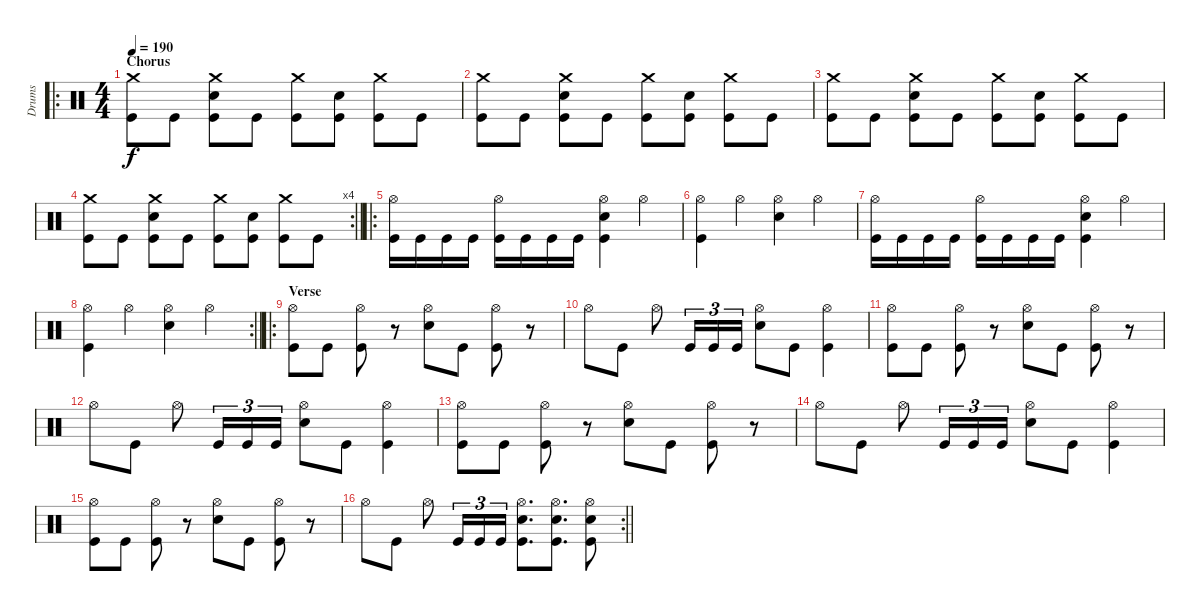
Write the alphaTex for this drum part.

\track ("Drums" "Drums") {instrument percussion}
\staff {score}
\articulation defaults
\ro
\ts (4 4)
\section ("" "Chorus")
\tempo 190
\clef neutral
\ks c
("Crash medium (hit)" "Kick (hit)").8{dy f} "Kick (hit)".8 ("Crash medium (hit)" "Snare (hit) 2" "Kick (hit)").8 "Kick (hit)".8 ("Crash medium (hit)" "Kick (hit)").8 ("Snare (hit) 2" "Kick (hit)").8 ("Crash medium (hit)" "Kick (hit)").8 "Kick (hit)".8 |
("Crash medium (hit)" "Kick (hit)").8 "Kick (hit)".8 ("Crash medium (hit)" "Snare (hit) 2" "Kick (hit)").8 "Kick (hit)".8 ("Crash medium (hit)" "Kick (hit)").8 ("Snare (hit) 2" "Kick (hit)").8 ("Crash medium (hit)" "Kick (hit)").8 "Kick (hit)".8 |
("Crash medium (hit)" "Kick (hit)").8 "Kick (hit)".8 ("Crash medium (hit)" "Snare (hit) 2" "Kick (hit)").8 "Kick (hit)".8 ("Crash medium (hit)" "Kick (hit)").8 ("Snare (hit) 2" "Kick (hit)").8 ("Crash medium (hit)" "Kick (hit)").8 "Kick (hit)".8 |
\rc 4
\barLineRight lightlight
("Crash medium (hit)" "Kick (hit)").8 "Kick (hit)".8 ("Crash medium (hit)" "Snare (hit) 2" "Kick (hit)").8 "Kick (hit)".8 ("Crash medium (hit)" "Kick (hit)").8 ("Snare (hit) 2" "Kick (hit)").8 ("Crash medium (hit)" "Kick (hit)").8 "Kick (hit)".8 |
\ro
("Hi-Hat (open)" "Kick (hit)").16 "Kick (hit)".16 "Kick (hit)".16 "Kick (hit)".16 ("Hi-Hat (open)" "Kick (hit)").16 "Kick (hit)".16 "Kick (hit)".16 "Kick (hit)".16 ("Hi-Hat (open)" "Snare (hit) 2" "Kick (hit)").4 "Hi-Hat (open)".4 |
("Hi-Hat (open)" "Kick (hit)").4 "Hi-Hat (open)".4 ("Hi-Hat (open)" "Snare (hit) 2").4 "Hi-Hat (open)".4 |
("Hi-Hat (open)" "Kick (hit)").16 "Kick (hit)".16 "Kick (hit)".16 "Kick (hit)".16 ("Hi-Hat (open)" "Kick (hit)").16 "Kick (hit)".16 "Kick (hit)".16 "Kick (hit)".16 ("Hi-Hat (open)" "Snare (hit) 2" "Kick (hit)").4 "Hi-Hat (open)".4 |
\rc 2
\barLineRight lightlight
("Hi-Hat (open)" "Kick (hit)").4 "Hi-Hat (open)".4 ("Hi-Hat (open)" "Snare (hit) 2").4 "Hi-Hat (open)".4 |
\ro
\section ("" "Verse")
("Hi-Hat (open)" "Kick (hit)").8 "Kick (hit)".8 ("Hi-Hat (open)" "Kick (hit)").8 r.8 ("Hi-Hat (open)" "Snare (hit) 2").8 "Kick (hit)".8 ("Hi-Hat (open)" "Kick (hit)").8 r.8 |
"Hi-Hat (open)".8 "Kick (hit)".8 "Hi-Hat (open)".8 "Kick (hit)".16{tu (3 2)} "Kick (hit)".16{tu (3 2)} "Kick (hit)".16{tu (3 2)} ("Hi-Hat (open)" "Snare (hit) 2").8 "Kick (hit)".8 ("Hi-Hat (open)" "Kick (hit)").4 |
("Hi-Hat (open)" "Kick (hit)").8 "Kick (hit)".8 ("Hi-Hat (open)" "Kick (hit)").8 r.8 ("Hi-Hat (open)" "Snare (hit) 2").8 "Kick (hit)".8 ("Hi-Hat (open)" "Kick (hit)").8 r.8 |
"Hi-Hat (open)".8 "Kick (hit)".8 "Hi-Hat (open)".8 "Kick (hit)".16{tu (3 2)} "Kick (hit)".16{tu (3 2)} "Kick (hit)".16{tu (3 2)} ("Hi-Hat (open)" "Snare (hit) 2").8 "Kick (hit)".8 ("Hi-Hat (open)" "Kick (hit)").4 |
("Hi-Hat (open)" "Kick (hit)").8 "Kick (hit)".8 ("Hi-Hat (open)" "Kick (hit)").8 r.8 ("Hi-Hat (open)" "Snare (hit) 2").8 "Kick (hit)".8 ("Hi-Hat (open)" "Kick (hit)").8 r.8 |
"Hi-Hat (open)".8 "Kick (hit)".8 "Hi-Hat (open)".8 "Kick (hit)".16{tu (3 2)} "Kick (hit)".16{tu (3 2)} "Kick (hit)".16{tu (3 2)} ("Hi-Hat (open)" "Snare (hit) 2").8 "Kick (hit)".8 ("Hi-Hat (open)" "Kick (hit)").4 |
("Hi-Hat (open)" "Kick (hit)").8 "Kick (hit)".8 ("Hi-Hat (open)" "Kick (hit)").8 r.8 ("Hi-Hat (open)" "Snare (hit) 2").8 "Kick (hit)".8 ("Hi-Hat (open)" "Kick (hit)").8 r.8 |
\rc 2
\barLineRight lightlight "Hi-Hat (open)".8 "Kick (hit)".8 "Hi-Hat (open)".8 "Kick (hit)".16{tu (3 2)} "Kick (hit)".16{tu (3 2)} "Kick (hit)".16{tu (3 2)}
("Hi-Hat (open)" "Snare (hit) 2" "Kick (hit)").8{d} ("Hi-Hat (open)" "Snare (hit) 2" "Kick (hit)").8{d} ("Hi-Hat (open)" "Snare (hit) 2" "Kick (hit)").8
